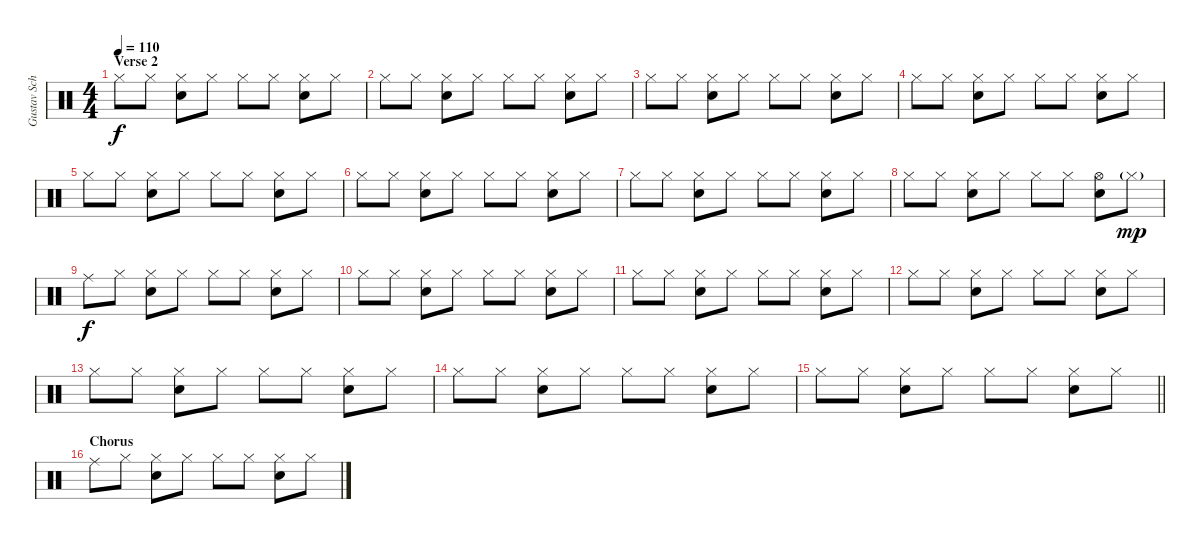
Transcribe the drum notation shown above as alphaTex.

\track ("Gustav Schafer" "Gustav Sch") {instrument percussion}
\staff {score}
\articulation defaults
\ts (4 4)
\section ("" "Verse 2")
\tempo 110
\clef neutral
\ks c "Hi-Hat (closed)".8{dy f} "Hi-Hat (closed)".8
("Hi-Hat (closed)" "Snare (hit) 2").8 "Hi-Hat (closed)".8 "Hi-Hat (closed)".8 "Hi-Hat (closed)".8 ("Hi-Hat (closed)" "Snare (hit) 2").8 "Hi-Hat (closed)".8 |
"Hi-Hat (closed)".8 "Hi-Hat (closed)".8 ("Hi-Hat (closed)" "Snare (hit) 2").8 "Hi-Hat (closed)".8 "Hi-Hat (closed)".8 "Hi-Hat (closed)".8 ("Hi-Hat (closed)" "Snare (hit) 2").8 "Hi-Hat (closed)".8 |
"Hi-Hat (closed)".8 "Hi-Hat (closed)".8 ("Hi-Hat (closed)" "Snare (hit) 2").8 "Hi-Hat (closed)".8 "Hi-Hat (closed)".8 "Hi-Hat (closed)".8 ("Hi-Hat (closed)" "Snare (hit) 2").8 "Hi-Hat (closed)".8 |
"Hi-Hat (closed)".8 "Hi-Hat (closed)".8 ("Hi-Hat (closed)" "Snare (hit) 2").8 "Hi-Hat (closed)".8 "Hi-Hat (closed)".8 "Hi-Hat (closed)".8 ("Hi-Hat (closed)" "Snare (hit) 2").8 "Hi-Hat (closed)".8 |
"Hi-Hat (closed)".8 "Hi-Hat (closed)".8 ("Hi-Hat (closed)" "Snare (hit) 2").8 "Hi-Hat (closed)".8 "Hi-Hat (closed)".8 "Hi-Hat (closed)".8 ("Hi-Hat (closed)" "Snare (hit) 2").8 "Hi-Hat (closed)".8 |
"Hi-Hat (closed)".8 "Hi-Hat (closed)".8 ("Hi-Hat (closed)" "Snare (hit) 2").8 "Hi-Hat (closed)".8 "Hi-Hat (closed)".8 "Hi-Hat (closed)".8 ("Hi-Hat (closed)" "Snare (hit) 2").8 "Hi-Hat (closed)".8 |
"Hi-Hat (closed)".8 "Hi-Hat (closed)".8 ("Hi-Hat (closed)" "Snare (hit) 2").8 "Hi-Hat (closed)".8 "Hi-Hat (closed)".8 "Hi-Hat (closed)".8 ("Hi-Hat (closed)" "Snare (hit) 2").8 "Hi-Hat (closed)".8 |
"Hi-Hat (closed)".8 "Hi-Hat (closed)".8 ("Hi-Hat (closed)" "Snare (hit) 2").8 "Hi-Hat (closed)".8 "Hi-Hat (closed)".8 "Hi-Hat (closed)".8 ("Hi-Hat (open)" "Snare (hit) 2").8 "Hi-Hat (closed)"{g}.8{dy mp} |
"Ride (middle)".8{dy f} "Hi-Hat (closed)".8 ("Hi-Hat (closed)" "Snare (hit) 2").8 "Hi-Hat (closed)".8 "Hi-Hat (closed)".8 "Hi-Hat (closed)".8 ("Hi-Hat (closed)" "Snare (hit) 2").8 "Hi-Hat (closed)".8 |
"Hi-Hat (closed)".8 "Hi-Hat (closed)".8 ("Hi-Hat (closed)" "Snare (hit) 2").8 "Hi-Hat (closed)".8 "Hi-Hat (closed)".8 "Hi-Hat (closed)".8 ("Hi-Hat (closed)" "Snare (hit) 2").8 "Hi-Hat (closed)".8 |
"Hi-Hat (closed)".8 "Hi-Hat (closed)".8 ("Hi-Hat (closed)" "Snare (hit) 2").8 "Hi-Hat (closed)".8 "Hi-Hat (closed)".8 "Hi-Hat (closed)".8 ("Hi-Hat (closed)" "Snare (hit) 2").8 "Hi-Hat (closed)".8 |
"Hi-Hat (closed)".8 "Hi-Hat (closed)".8 ("Hi-Hat (closed)" "Snare (hit) 2").8 "Hi-Hat (closed)".8 "Hi-Hat (closed)".8 "Hi-Hat (closed)".8 ("Hi-Hat (closed)" "Snare (hit) 2").8 "Hi-Hat (closed)".8 |
"Hi-Hat (closed)".8 "Hi-Hat (closed)".8 ("Hi-Hat (closed)" "Snare (hit) 2").8 "Hi-Hat (closed)".8 "Hi-Hat (closed)".8 "Hi-Hat (closed)".8 ("Hi-Hat (closed)" "Snare (hit) 2").8 "Hi-Hat (closed)".8 |
"Hi-Hat (closed)".8 "Hi-Hat (closed)".8 ("Hi-Hat (closed)" "Snare (hit) 2").8 "Hi-Hat (closed)".8 "Hi-Hat (closed)".8 "Hi-Hat (closed)".8 ("Hi-Hat (closed)" "Snare (hit) 2").8 "Hi-Hat (closed)".8 |
\barLineRight lightlight "Hi-Hat (closed)".8 "Hi-Hat (closed)".8
("Hi-Hat (closed)" "Snare (hit) 2").8 "Hi-Hat (closed)".8 "Hi-Hat (closed)".8 "Hi-Hat (closed)".8 ("Hi-Hat (closed)" "Snare (hit) 2").8 "Hi-Hat (closed)".8 |
\section ("" "Chorus")
"Ride (middle)".8 "Hi-Hat (closed)".8 ("Hi-Hat (closed)" "Snare (hit) 2").8 "Hi-Hat (closed)".8 "Hi-Hat (closed)".8 "Hi-Hat (closed)".8 ("Hi-Hat (closed)" "Snare (hit) 2").8 "Hi-Hat (closed)".8
